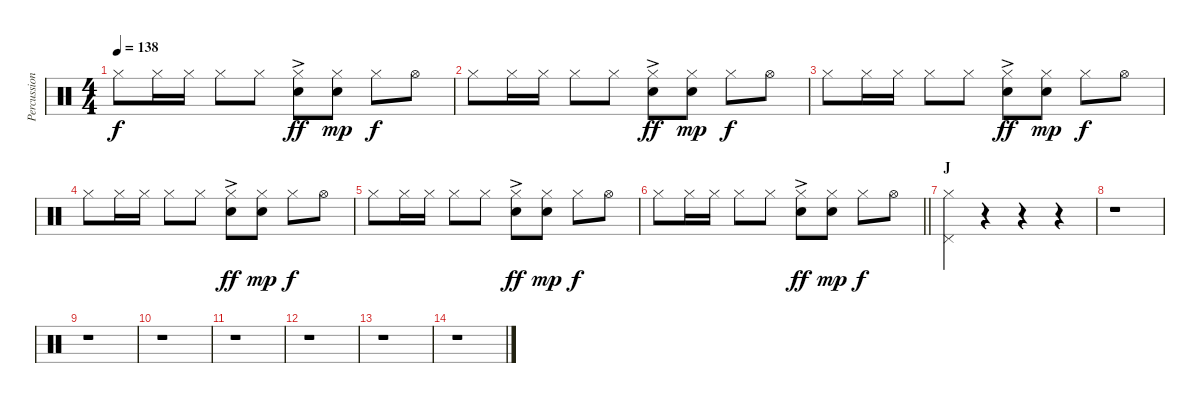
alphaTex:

\track ("Percussion" "Percussion") {instrument percussion}
\staff {score}
\articulation defaults
\ts (4 4)
\tempo 138
\clef neutral
\ks c "Hi-Hat (closed)".8{dy f} "Hi-Hat (closed)".16 "Hi-Hat (closed)".16 "Hi-Hat (closed)".8 "Hi-Hat (closed)".8
("Hi-Hat (closed)" "Snare (hit) 2"{ac}).8{dy ff} ("Hi-Hat (closed)" "Snare (hit) 2").8{dy mp} "Hi-Hat (closed)".8{dy f} "Hi-Hat (open)".8 |
"Hi-Hat (closed)".8 "Hi-Hat (closed)".16 "Hi-Hat (closed)".16 "Hi-Hat (closed)".8 "Hi-Hat (closed)".8 ("Hi-Hat (closed)" "Snare (hit) 2"{ac}).8{dy ff} ("Hi-Hat (closed)" "Snare (hit) 2").8{dy mp} "Hi-Hat (closed)".8{dy f} "Hi-Hat (open)".8 |
"Hi-Hat (closed)".8 "Hi-Hat (closed)".16 "Hi-Hat (closed)".16 "Hi-Hat (closed)".8 "Hi-Hat (closed)".8 ("Hi-Hat (closed)" "Snare (hit) 2"{ac}).8{dy ff} ("Hi-Hat (closed)" "Snare (hit) 2").8{dy mp} "Hi-Hat (closed)".8{dy f} "Hi-Hat (open)".8 |
"Hi-Hat (closed)".8 "Hi-Hat (closed)".16 "Hi-Hat (closed)".16 "Hi-Hat (closed)".8 "Hi-Hat (closed)".8 ("Hi-Hat (closed)" "Snare (hit) 2"{ac}).8{dy ff} ("Hi-Hat (closed)" "Snare (hit) 2").8{dy mp} "Hi-Hat (closed)".8{dy f} "Hi-Hat (open)".8 |
"Hi-Hat (closed)".8 "Hi-Hat (closed)".16 "Hi-Hat (closed)".16 "Hi-Hat (closed)".8 "Hi-Hat (closed)".8 ("Hi-Hat (closed)" "Snare (hit) 2"{ac}).8{dy ff} ("Hi-Hat (closed)" "Snare (hit) 2").8{dy mp} "Hi-Hat (closed)".8{dy f} "Hi-Hat (open)".8 |
\barLineRight lightlight "Hi-Hat (closed)".8 "Hi-Hat (closed)".16 "Hi-Hat (closed)".16 "Hi-Hat (closed)".8 "Hi-Hat (closed)".8
("Hi-Hat (closed)" "Snare (hit) 2"{ac}).8{dy ff} ("Hi-Hat (closed)" "Snare (hit) 2").8{dy mp} "Hi-Hat (closed)".8{dy f} "Hi-Hat (open)".8 |
\section ("" "J")
("Hi-Hat (closed)" "Pedal Hi-Hat (hit)").4 r.4 r.4 r.4 |
r.1 |
r.1 |
r.1 |
r.1 |
r.1 |
r.1 |
r.1
